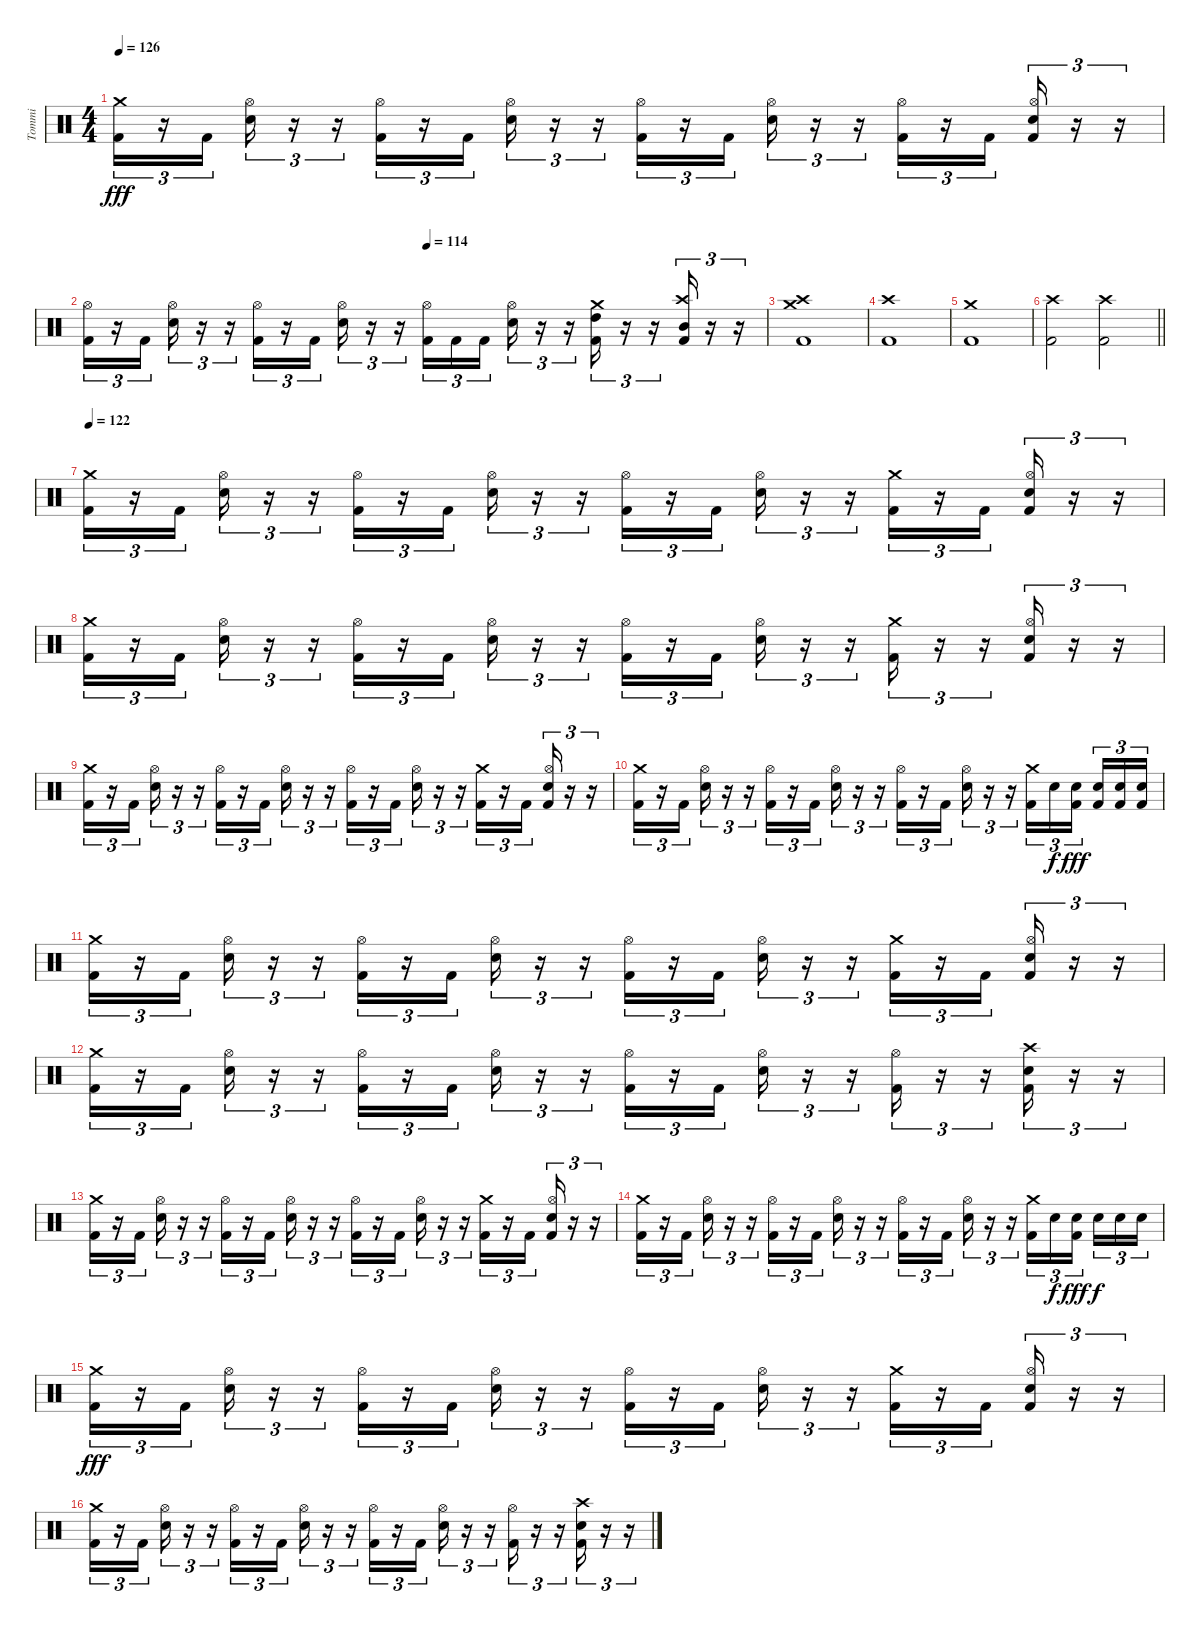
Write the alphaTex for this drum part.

\track ("Tommi" "Tommi") {instrument percussion}
\staff {score}
\articulation defaults
\ts (4 4)
\tempo 126
\clef neutral
\ks c
("Crash medium (hit)" "Kick (hit) 2").16{tu (3 2) dy fff} r.16{tu (3 2)} "Kick (hit) 2".16{tu (3 2)} ("Hi-Hat (open)" "Snare (hit) 2").16{tu (3 2)} r.16{tu (3 2)} r.16{tu (3 2)} ("Hi-Hat (open)" "Kick (hit) 2").16{tu (3 2)} r.16{tu (3 2)} "Kick (hit) 2".16{tu (3 2)} ("Hi-Hat (open)" "Snare (hit) 2").16{tu (3 2)} r.16{tu (3 2)} r.16{tu (3 2)} ("Hi-Hat (open)" "Kick (hit) 2").16{tu (3 2)} r.16{tu (3 2)} "Kick (hit) 2".16{tu (3 2)} ("Hi-Hat (open)" "Snare (hit) 2").16{tu (3 2)} r.16{tu (3 2)} r.16{tu (3 2)} ("Hi-Hat (open)" "Kick (hit) 2").16{tu (3 2)} r.16{tu (3 2)} "Kick (hit) 2".16{tu (3 2)} ("Hi-Hat (open)" "Snare (hit) 2" "Kick (hit) 2").16{tu (3 2)} r.16{tu (3 2)} r.16{tu (3 2)} |
\tempo (114 0.5)
("Hi-Hat (open)" "Kick (hit) 2").16{tu (3 2)} r.16{tu (3 2)} "Kick (hit) 2".16{tu (3 2)} ("Hi-Hat (open)" "Snare (hit) 2").16{tu (3 2)} r.16{tu (3 2)} r.16{tu (3 2)} ("Hi-Hat (open)" "Kick (hit) 2").16{tu (3 2)} r.16{tu (3 2)} "Kick (hit) 2".16{tu (3 2)} ("Hi-Hat (open)" "Snare (hit) 2").16{tu (3 2)} r.16{tu (3 2)} r.16{tu (3 2)} ("Hi-Hat (open)" "Kick (hit) 2").16{tu (3 2)} "Kick (hit) 2".16{tu (3 2)} "Kick (hit) 2".16{tu (3 2) beam splitsecondary} ("Hi-Hat (open)" "Snare (hit) 2").16{tu (3 2)} r.16{tu (3 2)} r.16{tu (3 2)} ("Crash medium (hit)" "High Tom (hit)" "Kick (hit) 2").16{tu (3 2)} r.16{tu (3 2)} r.16{tu (3 2)} ("Crash high (hit)" "Mid Tom (hit)" "Kick (hit) 2").16{tu (3 2)} r.16{tu (3 2)} r.16{tu (3 2)} |
("Crash high (hit)" "Crash medium (hit)" "Kick (hit) 2").1 |
("Crash high (hit)" "Kick (hit) 2").1 |
("Crash medium (hit)" "Kick (hit) 2").1 |
\barLineRight lightlight
("Crash high (hit)" "Kick (hit) 2").2 ("Crash high (hit)" "Kick (hit) 2").2 |
\tempo 122
("Crash medium (hit)" "Kick (hit) 2").16{tu (3 2)} r.16{tu (3 2)} "Kick (hit) 2".16{tu (3 2)} ("Hi-Hat (open)" "Snare (hit) 2").16{tu (3 2)} r.16{tu (3 2)} r.16{tu (3 2)} ("Hi-Hat (open)" "Kick (hit) 2").16{tu (3 2)} r.16{tu (3 2)} "Kick (hit) 2".16{tu (3 2)} ("Hi-Hat (open)" "Snare (hit) 2").16{tu (3 2)} r.16{tu (3 2)} r.16{tu (3 2)} ("Hi-Hat (open)" "Kick (hit) 2").16{tu (3 2)} r.16{tu (3 2)} "Kick (hit) 2".16{tu (3 2)} ("Hi-Hat (open)" "Snare (hit) 2").16{tu (3 2)} r.16{tu (3 2)} r.16{tu (3 2)} ("Crash medium (hit)" "Kick (hit) 2").16{tu (3 2)} r.16{tu (3 2)} "Kick (hit) 2".16{tu (3 2)} ("Hi-Hat (open)" "Snare (hit) 2" "Kick (hit) 2").16{tu (3 2)} r.16{tu (3 2)} r.16{tu (3 2)} |
("Crash medium (hit)" "Kick (hit) 2").16{tu (3 2)} r.16{tu (3 2)} "Kick (hit) 2".16{tu (3 2)} ("Hi-Hat (open)" "Snare (hit) 2").16{tu (3 2)} r.16{tu (3 2)} r.16{tu (3 2)} ("Hi-Hat (open)" "Kick (hit) 2").16{tu (3 2)} r.16{tu (3 2)} "Kick (hit) 2".16{tu (3 2)} ("Hi-Hat (open)" "Snare (hit) 2").16{tu (3 2)} r.16{tu (3 2)} r.16{tu (3 2)} ("Hi-Hat (open)" "Kick (hit) 2").16{tu (3 2)} r.16{tu (3 2)} "Kick (hit) 2".16{tu (3 2)} ("Hi-Hat (open)" "Snare (hit) 2").16{tu (3 2)} r.16{tu (3 2)} r.16{tu (3 2)} ("Crash medium (hit)" "Kick (hit) 2").16{tu (3 2)} r.16{tu (3 2)} r.16{tu (3 2)} ("Hi-Hat (open)" "Snare (hit) 2" "Kick (hit) 2").16{tu (3 2)} r.16{tu (3 2)} r.16{tu (3 2)} |
("Crash medium (hit)" "Kick (hit) 2").16{tu (3 2)} r.16{tu (3 2)} "Kick (hit) 2".16{tu (3 2)} ("Hi-Hat (open)" "Snare (hit) 2").16{tu (3 2)} r.16{tu (3 2)} r.16{tu (3 2)} ("Hi-Hat (open)" "Kick (hit) 2").16{tu (3 2)} r.16{tu (3 2)} "Kick (hit) 2".16{tu (3 2)} ("Hi-Hat (open)" "Snare (hit) 2").16{tu (3 2)} r.16{tu (3 2)} r.16{tu (3 2)} ("Hi-Hat (open)" "Kick (hit) 2").16{tu (3 2)} r.16{tu (3 2)} "Kick (hit) 2".16{tu (3 2)} ("Hi-Hat (open)" "Snare (hit) 2").16{tu (3 2)} r.16{tu (3 2)} r.16{tu (3 2)} ("Crash medium (hit)" "Kick (hit) 2").16{tu (3 2)} r.16{tu (3 2)} "Kick (hit) 2".16{tu (3 2)} ("Hi-Hat (open)" "Snare (hit) 2" "Kick (hit) 2").16{tu (3 2)} r.16{tu (3 2)} r.16{tu (3 2)} |
("Crash medium (hit)" "Kick (hit) 2").16{tu (3 2)} r.16{tu (3 2)} "Kick (hit) 2".16{tu (3 2)} ("Hi-Hat (open)" "Snare (hit) 2").16{tu (3 2)} r.16{tu (3 2)} r.16{tu (3 2)} ("Hi-Hat (open)" "Kick (hit) 2").16{tu (3 2)} r.16{tu (3 2)} "Kick (hit) 2".16{tu (3 2)} ("Hi-Hat (open)" "Snare (hit) 2").16{tu (3 2)} r.16{tu (3 2)} r.16{tu (3 2)} ("Hi-Hat (open)" "Kick (hit) 2").16{tu (3 2)} r.16{tu (3 2)} "Kick (hit) 2".16{tu (3 2)} ("Hi-Hat (open)" "Snare (hit) 2").16{tu (3 2)} r.16{tu (3 2)} r.16{tu (3 2)} ("Crash medium (hit)" "Kick (hit) 2").16{tu (3 2)} "Snare (hit) 2".16{tu (3 2) dy f} ("Snare (hit) 2" "Kick (hit) 2").16{tu (3 2) dy fff beam splitsecondary} ("Snare (hit) 2" "Kick (hit) 2").16{tu (3 2)} ("Snare (hit) 2" "Kick (hit) 2").16{tu (3 2)} ("Snare (hit) 2" "Kick (hit) 2").16{tu (3 2)} |
("Crash medium (hit)" "Kick (hit) 2").16{tu (3 2)} r.16{tu (3 2)} "Kick (hit) 2".16{tu (3 2)} ("Hi-Hat (open)" "Snare (hit) 2").16{tu (3 2)} r.16{tu (3 2)} r.16{tu (3 2)} ("Hi-Hat (open)" "Kick (hit) 2").16{tu (3 2)} r.16{tu (3 2)} "Kick (hit) 2".16{tu (3 2)} ("Hi-Hat (open)" "Snare (hit) 2").16{tu (3 2)} r.16{tu (3 2)} r.16{tu (3 2)} ("Hi-Hat (open)" "Kick (hit) 2").16{tu (3 2)} r.16{tu (3 2)} "Kick (hit) 2".16{tu (3 2)} ("Hi-Hat (open)" "Snare (hit) 2").16{tu (3 2)} r.16{tu (3 2)} r.16{tu (3 2)} ("Crash medium (hit)" "Kick (hit) 2").16{tu (3 2)} r.16{tu (3 2)} "Kick (hit) 2".16{tu (3 2)} ("Hi-Hat (open)" "Snare (hit) 2" "Kick (hit) 2").16{tu (3 2)} r.16{tu (3 2)} r.16{tu (3 2)} |
("Crash medium (hit)" "Kick (hit) 2").16{tu (3 2)} r.16{tu (3 2)} "Kick (hit) 2".16{tu (3 2)} ("Hi-Hat (open)" "Snare (hit) 2").16{tu (3 2)} r.16{tu (3 2)} r.16{tu (3 2)} ("Hi-Hat (open)" "Kick (hit) 2").16{tu (3 2)} r.16{tu (3 2)} "Kick (hit) 2".16{tu (3 2)} ("Hi-Hat (open)" "Snare (hit) 2").16{tu (3 2)} r.16{tu (3 2)} r.16{tu (3 2)} ("Hi-Hat (open)" "Kick (hit) 2").16{tu (3 2)} r.16{tu (3 2)} "Kick (hit) 2".16{tu (3 2)} ("Hi-Hat (open)" "Snare (hit) 2").16{tu (3 2)} r.16{tu (3 2)} r.16{tu (3 2)} ("Hi-Hat (open)" "Kick (hit) 2").16{tu (3 2)} r.16{tu (3 2)} r.16{tu (3 2)} ("Crash high (hit)" "Snare (hit) 2" "Kick (hit) 2").16{tu (3 2)} r.16{tu (3 2)} r.16{tu (3 2)} |
("Crash medium (hit)" "Kick (hit) 2").16{tu (3 2)} r.16{tu (3 2)} "Kick (hit) 2".16{tu (3 2)} ("Hi-Hat (open)" "Snare (hit) 2").16{tu (3 2)} r.16{tu (3 2)} r.16{tu (3 2)} ("Hi-Hat (open)" "Kick (hit) 2").16{tu (3 2)} r.16{tu (3 2)} "Kick (hit) 2".16{tu (3 2)} ("Hi-Hat (open)" "Snare (hit) 2").16{tu (3 2)} r.16{tu (3 2)} r.16{tu (3 2)} ("Hi-Hat (open)" "Kick (hit) 2").16{tu (3 2)} r.16{tu (3 2)} "Kick (hit) 2".16{tu (3 2)} ("Hi-Hat (open)" "Snare (hit) 2").16{tu (3 2)} r.16{tu (3 2)} r.16{tu (3 2)} ("Crash medium (hit)" "Kick (hit) 2").16{tu (3 2)} r.16{tu (3 2)} "Kick (hit) 2".16{tu (3 2)} ("Hi-Hat (open)" "Snare (hit) 2" "Kick (hit) 2").16{tu (3 2)} r.16{tu (3 2)} r.16{tu (3 2)} |
("Crash medium (hit)" "Kick (hit) 2").16{tu (3 2)} r.16{tu (3 2)} "Kick (hit) 2".16{tu (3 2)} ("Hi-Hat (open)" "Snare (hit) 2").16{tu (3 2)} r.16{tu (3 2)} r.16{tu (3 2)} ("Hi-Hat (open)" "Kick (hit) 2").16{tu (3 2)} r.16{tu (3 2)} "Kick (hit) 2".16{tu (3 2)} ("Hi-Hat (open)" "Snare (hit) 2").16{tu (3 2)} r.16{tu (3 2)} r.16{tu (3 2)} ("Hi-Hat (open)" "Kick (hit) 2").16{tu (3 2)} r.16{tu (3 2)} "Kick (hit) 2".16{tu (3 2)} ("Hi-Hat (open)" "Snare (hit) 2").16{tu (3 2)} r.16{tu (3 2)} r.16{tu (3 2)} ("Crash medium (hit)" "Kick (hit) 2").16{tu (3 2)} "Snare (hit) 2".16{tu (3 2) dy f} ("Snare (hit) 2" "Kick (hit) 2").16{tu (3 2) dy fff beam splitsecondary} "Snare (hit) 2".16{tu (3 2) dy f} "Snare (hit) 2".16{tu (3 2)} "Snare (hit) 2".16{tu (3 2)} |
("Crash medium (hit)" "Kick (hit) 2").16{tu (3 2) dy fff} r.16{tu (3 2)} "Kick (hit) 2".16{tu (3 2)} ("Hi-Hat (open)" "Snare (hit) 2").16{tu (3 2)} r.16{tu (3 2)} r.16{tu (3 2)} ("Hi-Hat (open)" "Kick (hit) 2").16{tu (3 2)} r.16{tu (3 2)} "Kick (hit) 2".16{tu (3 2)} ("Hi-Hat (open)" "Snare (hit) 2").16{tu (3 2)} r.16{tu (3 2)} r.16{tu (3 2)} ("Hi-Hat (open)" "Kick (hit) 2").16{tu (3 2)} r.16{tu (3 2)} "Kick (hit) 2".16{tu (3 2)} ("Hi-Hat (open)" "Snare (hit) 2").16{tu (3 2)} r.16{tu (3 2)} r.16{tu (3 2)} ("Crash medium (hit)" "Kick (hit) 2").16{tu (3 2)} r.16{tu (3 2)} "Kick (hit) 2".16{tu (3 2)} ("Hi-Hat (open)" "Snare (hit) 2" "Kick (hit) 2").16{tu (3 2)} r.16{tu (3 2)} r.16{tu (3 2)} |
("Crash medium (hit)" "Kick (hit) 2").16{tu (3 2)} r.16{tu (3 2)} "Kick (hit) 2".16{tu (3 2)} ("Hi-Hat (open)" "Snare (hit) 2").16{tu (3 2)} r.16{tu (3 2)} r.16{tu (3 2)} ("Hi-Hat (open)" "Kick (hit) 2").16{tu (3 2)} r.16{tu (3 2)} "Kick (hit) 2".16{tu (3 2)} ("Hi-Hat (open)" "Snare (hit) 2").16{tu (3 2)} r.16{tu (3 2)} r.16{tu (3 2)} ("Hi-Hat (open)" "Kick (hit) 2").16{tu (3 2)} r.16{tu (3 2)} "Kick (hit) 2".16{tu (3 2)} ("Hi-Hat (open)" "Snare (hit) 2").16{tu (3 2)} r.16{tu (3 2)} r.16{tu (3 2)} ("Hi-Hat (open)" "Kick (hit) 2").16{tu (3 2)} r.16{tu (3 2)} r.16{tu (3 2)} ("Crash high (hit)" "Snare (hit) 2" "Kick (hit) 2").16{tu (3 2)} r.16{tu (3 2)} r.16{tu (3 2)}
